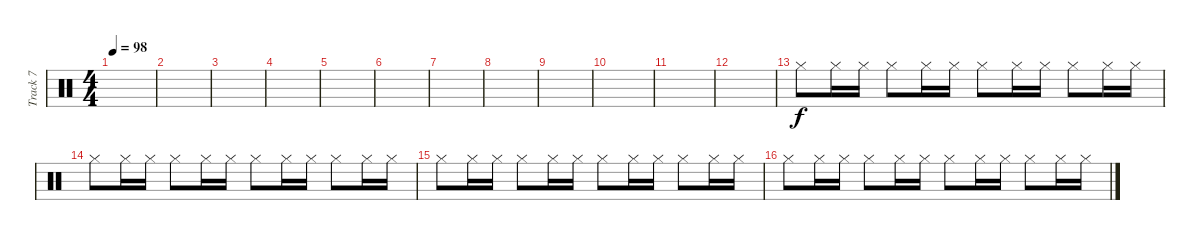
\track ("Track 7" "Track 7") {instrument percussion}
\staff {score}
\articulation defaults
\ts (4 4)
\tempo 98
\clef neutral
\ks c
|
|
|
|
|
|
|
|
|
|
|
|
"Hi-Hat (closed)".8 "Hi-Hat (closed)".16 "Hi-Hat (closed)".16 "Hi-Hat (closed)".8 "Hi-Hat (closed)".16 "Hi-Hat (closed)".16 "Hi-Hat (closed)".8 "Hi-Hat (closed)".16 "Hi-Hat (closed)".16 "Hi-Hat (closed)".8 "Hi-Hat (closed)".16 "Hi-Hat (closed)".16 |
"Hi-Hat (closed)".8 "Hi-Hat (closed)".16 "Hi-Hat (closed)".16 "Hi-Hat (closed)".8 "Hi-Hat (closed)".16 "Hi-Hat (closed)".16 "Hi-Hat (closed)".8 "Hi-Hat (closed)".16 "Hi-Hat (closed)".16 "Hi-Hat (closed)".8 "Hi-Hat (closed)".16 "Hi-Hat (closed)".16 |
"Hi-Hat (closed)".8 "Hi-Hat (closed)".16 "Hi-Hat (closed)".16 "Hi-Hat (closed)".8 "Hi-Hat (closed)".16 "Hi-Hat (closed)".16 "Hi-Hat (closed)".8 "Hi-Hat (closed)".16 "Hi-Hat (closed)".16 "Hi-Hat (closed)".8 "Hi-Hat (closed)".16 "Hi-Hat (closed)".16 |
"Hi-Hat (closed)".8 "Hi-Hat (closed)".16 "Hi-Hat (closed)".16 "Hi-Hat (closed)".8 "Hi-Hat (closed)".16 "Hi-Hat (closed)".16 "Hi-Hat (closed)".8 "Hi-Hat (closed)".16 "Hi-Hat (closed)".16 "Hi-Hat (closed)".8 "Hi-Hat (closed)".16 "Hi-Hat (closed)".16
